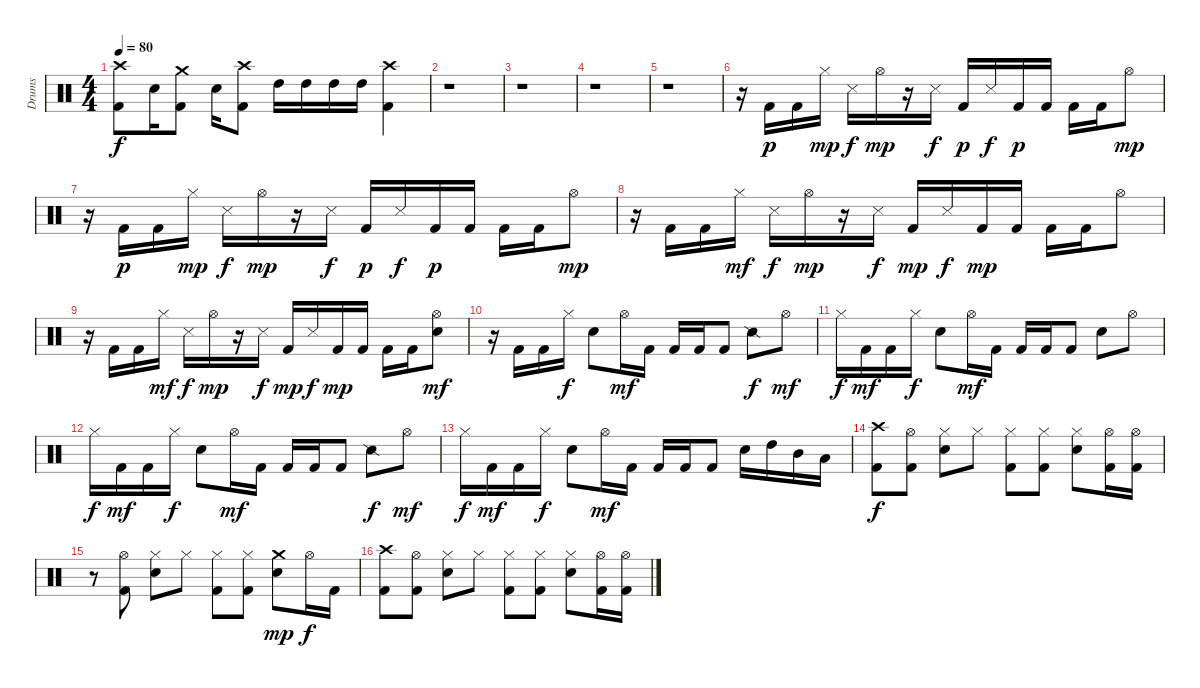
\track ("Drums" "Drums") {instrument percussion}
\staff {score}
\articulation defaults
\ts (4 4)
\tempo 80
\clef neutral
\ks c
("Crash high (hit)" "Kick (hit) 2").8{dy f} "Snare (hit) 2".16 ("Crash medium (hit)" "Kick (hit) 2").8 "Snare (hit) 2".16 ("Crash high (hit)" "Kick (hit) 2").8 "High Tom (hit)".16 "High Tom (hit)".16 "High Tom (hit)".16 "High Tom (hit)".16 ("Crash high (hit)" "Kick (hit) 2").4 |
r.1 |
r.1 |
r.1 |
r.1 |
r.16 "Kick (hit) 2".16{dy p} "Kick (hit) 2".16 "Hi-Hat (closed)".16{dy mp} "Snare (side stick) 3".16{dy f} "Hi-Hat (open)".16{dy mp} r.16 "Snare (side stick) 3".16{dy f} "Kick (hit) 2".16{dy p} "Snare (side stick) 3".16{dy f} "Kick (hit) 2".16{dy p} "Kick (hit) 2".16 "Kick (hit) 2".16 "Kick (hit) 2".16 "Hi-Hat (open)".8{dy mp} |
r.16 "Kick (hit) 2".16{dy p} "Kick (hit) 2".16 "Hi-Hat (closed)".16{dy mp} "Snare (side stick) 3".16{dy f} "Hi-Hat (open)".16{dy mp} r.16 "Snare (side stick) 3".16{dy f} "Kick (hit) 2".16{dy p} "Snare (side stick) 3".16{dy f} "Kick (hit) 2".16{dy p} "Kick (hit) 2".16 "Kick (hit) 2".16 "Kick (hit) 2".16 "Hi-Hat (open)".8{dy mp} |
r.16 "Kick (hit) 2".16 "Kick (hit) 2".16 "Hi-Hat (closed)".16{dy mf} "Snare (side stick) 3".16{dy f} "Hi-Hat (open)".16{dy mp} r.16 "Snare (side stick) 3".16{dy f} "Kick (hit) 2".16{dy mp} "Snare (side stick) 3".16{dy f} "Kick (hit) 2".16{dy mp} "Kick (hit) 2".16 "Kick (hit) 2".16 "Kick (hit) 2".16 "Hi-Hat (open)".8 |
r.16 "Kick (hit) 2".16 "Kick (hit) 2".16 "Hi-Hat (closed)".16{dy mf} "Snare (side stick) 3".16{dy f} "Hi-Hat (open)".16{dy mp} r.16 "Snare (side stick) 3".16{dy f} "Kick (hit) 2".16{dy mp} "Snare (side stick) 3".16{dy f} "Kick (hit) 2".16{dy mp} "Kick (hit) 2".16 "Kick (hit) 2".16 "Kick (hit) 2".16 ("Hi-Hat (open)" "Snare (hit) 2").8{dy mf} |
r.16 "Kick (hit) 2".16 "Kick (hit) 2".16 "Hi-Hat (closed)".16{dy f} "Snare (hit) 2".8 "Hi-Hat (open)".16{dy mf} "Kick (hit) 2".16 "Kick (hit) 2".16 "Kick (hit) 2".16 "Kick (hit) 2".8 "Snare (side stick) 2".8{dy f} "Hi-Hat (open)".8{dy mf} |
"Hi-Hat (closed)".16{dy f} "Kick (hit) 2".16{dy mf} "Kick (hit) 2".16 "Hi-Hat (closed)".16{dy f} "Snare (hit) 2".8 "Hi-Hat (open)".16{dy mf} "Kick (hit) 2".16 "Kick (hit) 2".16 "Kick (hit) 2".16 "Kick (hit) 2".8 "Snare (hit) 2".8 "Hi-Hat (open)".8 |
"Hi-Hat (closed)".16{dy f} "Kick (hit) 2".16{dy mf} "Kick (hit) 2".16 "Hi-Hat (closed)".16{dy f} "Snare (hit) 2".8 "Hi-Hat (open)".16{dy mf} "Kick (hit) 2".16 "Kick (hit) 2".16 "Kick (hit) 2".16 "Kick (hit) 2".8 "Snare (side stick) 2".8{dy f} "Hi-Hat (open)".8{dy mf} |
"Hi-Hat (closed)".16{dy f} "Kick (hit) 2".16{dy mf} "Kick (hit) 2".16 "Hi-Hat (closed)".16{dy f} "Snare (hit) 2".8 "Hi-Hat (open)".16{dy mf} "Kick (hit) 2".16 "Kick (hit) 2".16 "Kick (hit) 2".16 "Kick (hit) 2".8 "Snare (hit) 2".16 "High Tom (hit)".16 "Mid Tom (hit)".16 "Low Tom (hit)".16 |
("Crash high (hit)" "Kick (hit) 2").8{dy f} ("Hi-Hat (open)" "Kick (hit) 2").8 ("Hi-Hat (closed)" "Snare (hit) 2").8 "Hi-Hat (closed)".8 ("Hi-Hat (closed)" "Kick (hit) 2").8 ("Hi-Hat (closed)" "Kick (hit) 2").8 ("Hi-Hat (closed)" "Snare (hit) 2").8 ("Hi-Hat (open)" "Kick (hit) 2").16 ("Hi-Hat (open)" "Kick (hit) 2").16 |
r.8 ("Hi-Hat (open)" "Kick (hit) 2").8 ("Hi-Hat (closed)" "Snare (hit) 2").8 "Hi-Hat (closed)".8 ("Hi-Hat (closed)" "Kick (hit) 2").8 ("Hi-Hat (closed)" "Kick (hit) 2").8 ("Crash medium (hit)" "Snare (hit) 2").8{dy mp} "Hi-Hat (open)".16{dy f} "Kick (hit) 2".16 |
("Crash high (hit)" "Kick (hit) 2").8 ("Hi-Hat (open)" "Kick (hit) 2").8 ("Hi-Hat (closed)" "Snare (hit) 2").8 "Hi-Hat (closed)".8 ("Hi-Hat (closed)" "Kick (hit) 2").8 ("Hi-Hat (closed)" "Kick (hit) 2").8 ("Hi-Hat (closed)" "Snare (hit) 2").8 ("Hi-Hat (open)" "Kick (hit) 2").16 ("Hi-Hat (open)" "Kick (hit) 2").16
